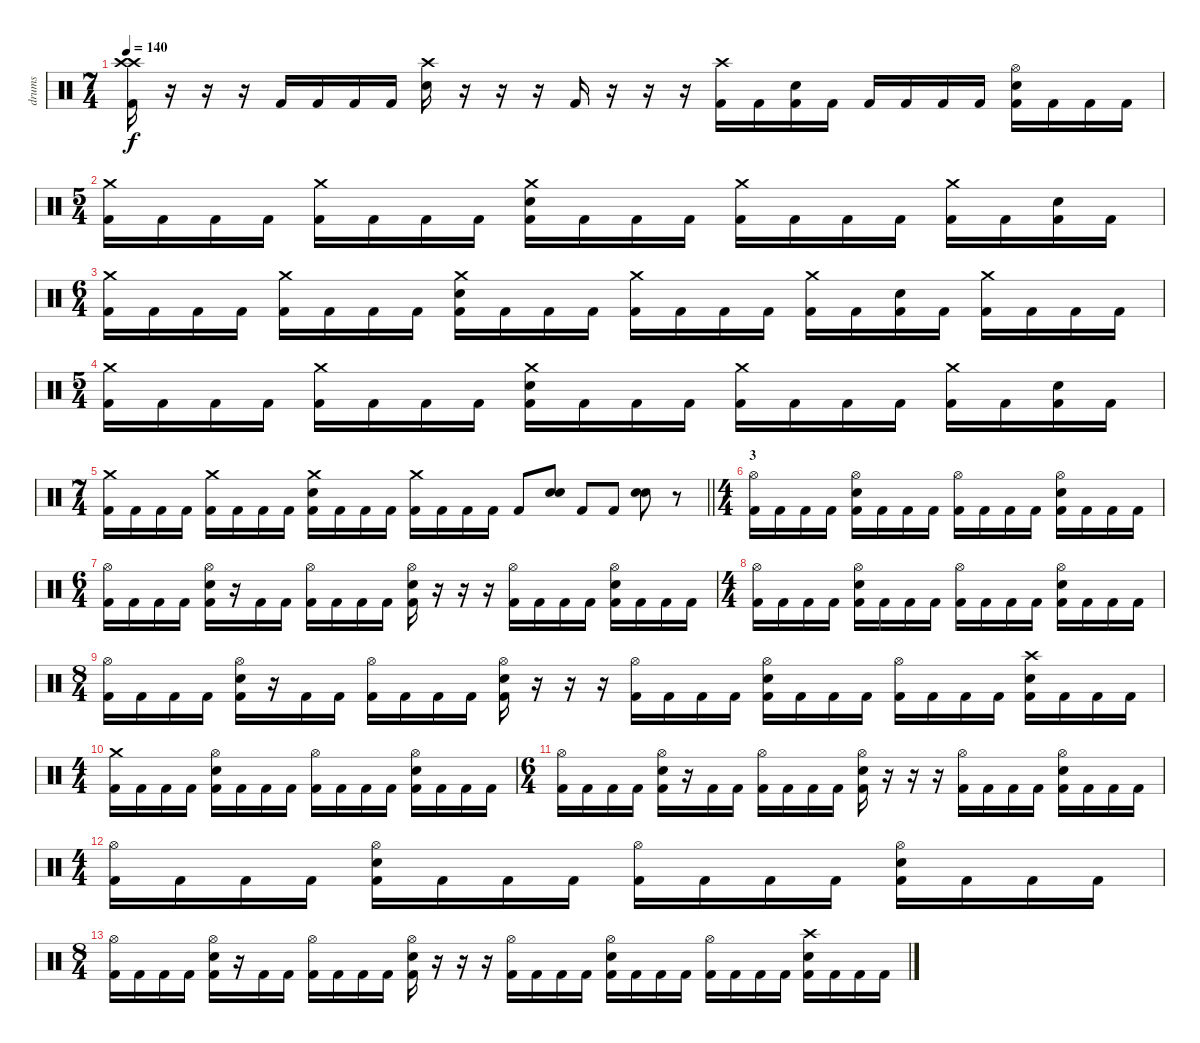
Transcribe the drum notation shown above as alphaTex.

\track ("drums" "drums") {instrument percussion}
\staff {score}
\articulation defaults
\ts (7 4)
\tempo 140
\clef neutral
\ks c
("Crash high (hit)" "Crash high (hit)" "Kick (hit) 2").16{dy f} r.16 r.16 r.16 "Kick (hit) 2".16 "Kick (hit) 2".16 "Kick (hit) 2".16 "Kick (hit) 2".16 ("Crash high (hit)" "Electric Snare (hit)").16 r.16 r.16 r.16 "Kick (hit) 2".16 r.16 r.16 r.16 ("Crash high (hit)" "Kick (hit) 2").16 "Kick (hit) 2".16 ("Electric Snare (hit)" "Kick (hit) 2").16 "Kick (hit) 2".16 "Kick (hit) 2".16 "Kick (hit) 2".16 "Kick (hit) 2".16 "Kick (hit) 2".16 ("Hi-Hat (open)" "Electric Snare (hit)" "Kick (hit) 2").16 "Kick (hit) 2".16 "Kick (hit) 2".16 "Kick (hit) 2".16 |
\ts (5 4)
("Crash medium (hit)" "Kick (hit) 2").16 "Kick (hit) 2".16 "Kick (hit) 2".16 "Kick (hit) 2".16 ("Crash medium (hit)" "Kick (hit) 2").16 "Kick (hit) 2".16 "Kick (hit) 2".16 "Kick (hit) 2".16 ("Crash medium (hit)" "Electric Snare (hit)" "Kick (hit) 2").16 "Kick (hit) 2".16 "Kick (hit) 2".16 "Kick (hit) 2".16 ("Crash medium (hit)" "Kick (hit) 2").16 "Kick (hit) 2".16 "Kick (hit) 2".16 "Kick (hit) 2".16 ("Crash medium (hit)" "Kick (hit) 2").16 "Kick (hit) 2".16 ("Electric Snare (hit)" "Kick (hit) 2").16 "Kick (hit) 2".16 |
\ts (6 4)
("Crash medium (hit)" "Kick (hit) 2").16 "Kick (hit) 2".16 "Kick (hit) 2".16 "Kick (hit) 2".16 ("Crash medium (hit)" "Kick (hit) 2").16 "Kick (hit) 2".16 "Kick (hit) 2".16 "Kick (hit) 2".16 ("Crash medium (hit)" "Electric Snare (hit)" "Kick (hit) 2").16 "Kick (hit) 2".16 "Kick (hit) 2".16 "Kick (hit) 2".16 ("Crash medium (hit)" "Kick (hit) 2").16 "Kick (hit) 2".16 "Kick (hit) 2".16 "Kick (hit) 2".16 ("Crash medium (hit)" "Kick (hit) 2").16 "Kick (hit) 2".16 ("Electric Snare (hit)" "Kick (hit) 2").16 "Kick (hit) 2".16 ("Crash medium (hit)" "Kick (hit) 2").16 "Kick (hit) 2".16 "Kick (hit) 2".16 "Kick (hit) 2".16 |
\ts (5 4)
("Crash medium (hit)" "Kick (hit) 2").16 "Kick (hit) 2".16 "Kick (hit) 2".16 "Kick (hit) 2".16 ("Crash medium (hit)" "Kick (hit) 2").16 "Kick (hit) 2".16 "Kick (hit) 2".16 "Kick (hit) 2".16 ("Crash medium (hit)" "Electric Snare (hit)" "Kick (hit) 2").16 "Kick (hit) 2".16 "Kick (hit) 2".16 "Kick (hit) 2".16 ("Crash medium (hit)" "Kick (hit) 2").16 "Kick (hit) 2".16 "Kick (hit) 2".16 "Kick (hit) 2".16 ("Crash medium (hit)" "Kick (hit) 2").16 "Kick (hit) 2".16 ("Electric Snare (hit)" "Kick (hit) 2").16 "Kick (hit) 2".16 |
\ts (7 4)
\barLineRight lightlight
("Crash medium (hit)" "Kick (hit) 2").16 "Kick (hit) 2".16 "Kick (hit) 2".16 "Kick (hit) 2".16 ("Crash medium (hit)" "Kick (hit) 2").16 "Kick (hit) 2".16 "Kick (hit) 2".16 "Kick (hit) 2".16 ("Crash medium (hit)" "Electric Snare (hit)" "Kick (hit) 2").16 "Kick (hit) 2".16 "Kick (hit) 2".16 "Kick (hit) 2".16 ("Crash medium (hit)" "Kick (hit) 2").16 "Kick (hit) 2".16 "Kick (hit) 2".16 "Kick (hit) 2".16 "Kick (hit) 2".8 ("Electric Snare (hit)" "Electric Snare (hit)").8 "Kick (hit) 2".8 "Kick (hit) 2".8 ("Electric Snare (hit)" "Electric Snare (hit)").8 r.8 |
\ts (4 4)
\section ("" "3")
("Hi-Hat (open)" "Kick (hit) 2").16 "Kick (hit) 2".16 "Kick (hit) 2".16 "Kick (hit) 2".16 ("Hi-Hat (open)" "Electric Snare (hit)" "Kick (hit) 2").16 "Kick (hit) 2".16 "Kick (hit) 2".16 "Kick (hit) 2".16 ("Hi-Hat (open)" "Kick (hit) 2").16 "Kick (hit) 2".16 "Kick (hit) 2".16 "Kick (hit) 2".16 ("Hi-Hat (open)" "Electric Snare (hit)" "Kick (hit) 2").16 "Kick (hit) 2".16 "Kick (hit) 2".16 "Kick (hit) 2".16 |
\ts (6 4)
("Hi-Hat (open)" "Kick (hit) 2").16 "Kick (hit) 2".16 "Kick (hit) 2".16 "Kick (hit) 2".16 ("Hi-Hat (open)" "Electric Snare (hit)" "Kick (hit) 2").16 r.16 "Kick (hit) 2".16 "Kick (hit) 2".16 ("Hi-Hat (open)" "Kick (hit) 2").16 "Kick (hit) 2".16 "Kick (hit) 2".16 "Kick (hit) 2".16 ("Hi-Hat (open)" "Electric Snare (hit)" "Kick (hit) 2").16 r.16 r.16 r.16 ("Hi-Hat (open)" "Kick (hit) 2").16 "Kick (hit) 2".16 "Kick (hit) 2".16 "Kick (hit) 2".16 ("Hi-Hat (open)" "Electric Snare (hit)" "Kick (hit) 2").16 "Kick (hit) 2".16 "Kick (hit) 2".16 "Kick (hit) 2".16 |
\ts (4 4)
("Hi-Hat (open)" "Kick (hit) 2").16 "Kick (hit) 2".16 "Kick (hit) 2".16 "Kick (hit) 2".16 ("Hi-Hat (open)" "Electric Snare (hit)" "Kick (hit) 2").16 "Kick (hit) 2".16 "Kick (hit) 2".16 "Kick (hit) 2".16 ("Hi-Hat (open)" "Kick (hit) 2").16 "Kick (hit) 2".16 "Kick (hit) 2".16 "Kick (hit) 2".16 ("Hi-Hat (open)" "Electric Snare (hit)" "Kick (hit) 2").16 "Kick (hit) 2".16 "Kick (hit) 2".16 "Kick (hit) 2".16 |
\ts (8 4)
("Hi-Hat (open)" "Kick (hit) 2").16 "Kick (hit) 2".16 "Kick (hit) 2".16 "Kick (hit) 2".16 ("Hi-Hat (open)" "Electric Snare (hit)" "Kick (hit) 2").16 r.16 "Kick (hit) 2".16 "Kick (hit) 2".16 ("Hi-Hat (open)" "Kick (hit) 2").16 "Kick (hit) 2".16 "Kick (hit) 2".16 "Kick (hit) 2".16 ("Hi-Hat (open)" "Electric Snare (hit)" "Kick (hit) 2").16 r.16 r.16 r.16 ("Hi-Hat (open)" "Kick (hit) 2").16 "Kick (hit) 2".16 "Kick (hit) 2".16 "Kick (hit) 2".16 ("Hi-Hat (open)" "Electric Snare (hit)" "Kick (hit) 2").16 "Kick (hit) 2".16 "Kick (hit) 2".16 "Kick (hit) 2".16 ("Hi-Hat (open)" "Kick (hit) 2").16 "Kick (hit) 2".16 "Kick (hit) 2".16 "Kick (hit) 2".16 ("Crash high (hit)" "Electric Snare (hit)" "Kick (hit) 2").16 "Kick (hit) 2".16 "Kick (hit) 2".16 "Kick (hit) 2".16 |
\ts (4 4)
("Crash medium (hit)" "Kick (hit) 2").16 "Kick (hit) 2".16 "Kick (hit) 2".16 "Kick (hit) 2".16 ("Hi-Hat (open)" "Electric Snare (hit)" "Kick (hit) 2").16 "Kick (hit) 2".16 "Kick (hit) 2".16 "Kick (hit) 2".16 ("Hi-Hat (open)" "Kick (hit) 2").16 "Kick (hit) 2".16 "Kick (hit) 2".16 "Kick (hit) 2".16 ("Hi-Hat (open)" "Electric Snare (hit)" "Kick (hit) 2").16 "Kick (hit) 2".16 "Kick (hit) 2".16 "Kick (hit) 2".16 |
\ts (6 4)
("Hi-Hat (open)" "Kick (hit) 2").16 "Kick (hit) 2".16 "Kick (hit) 2".16 "Kick (hit) 2".16 ("Hi-Hat (open)" "Electric Snare (hit)" "Kick (hit) 2").16 r.16 "Kick (hit) 2".16 "Kick (hit) 2".16 ("Hi-Hat (open)" "Kick (hit) 2").16 "Kick (hit) 2".16 "Kick (hit) 2".16 "Kick (hit) 2".16 ("Hi-Hat (open)" "Electric Snare (hit)" "Kick (hit) 2").16 r.16 r.16 r.16 ("Hi-Hat (open)" "Kick (hit) 2").16 "Kick (hit) 2".16 "Kick (hit) 2".16 "Kick (hit) 2".16 ("Hi-Hat (open)" "Electric Snare (hit)" "Kick (hit) 2").16 "Kick (hit) 2".16 "Kick (hit) 2".16 "Kick (hit) 2".16 |
\ts (4 4)
("Hi-Hat (open)" "Kick (hit) 2").16 "Kick (hit) 2".16 "Kick (hit) 2".16 "Kick (hit) 2".16 ("Hi-Hat (open)" "Electric Snare (hit)" "Kick (hit) 2").16 "Kick (hit) 2".16 "Kick (hit) 2".16 "Kick (hit) 2".16 ("Hi-Hat (open)" "Kick (hit) 2").16 "Kick (hit) 2".16 "Kick (hit) 2".16 "Kick (hit) 2".16 ("Hi-Hat (open)" "Electric Snare (hit)" "Kick (hit) 2").16 "Kick (hit) 2".16 "Kick (hit) 2".16 "Kick (hit) 2".16 |
\ts (8 4)
("Hi-Hat (open)" "Kick (hit) 2").16 "Kick (hit) 2".16 "Kick (hit) 2".16 "Kick (hit) 2".16 ("Hi-Hat (open)" "Electric Snare (hit)" "Kick (hit) 2").16 r.16 "Kick (hit) 2".16 "Kick (hit) 2".16 ("Hi-Hat (open)" "Kick (hit) 2").16 "Kick (hit) 2".16 "Kick (hit) 2".16 "Kick (hit) 2".16 ("Hi-Hat (open)" "Electric Snare (hit)" "Kick (hit) 2").16 r.16 r.16 r.16 ("Hi-Hat (open)" "Kick (hit) 2").16 "Kick (hit) 2".16 "Kick (hit) 2".16 "Kick (hit) 2".16 ("Hi-Hat (open)" "Electric Snare (hit)" "Kick (hit) 2").16 "Kick (hit) 2".16 "Kick (hit) 2".16 "Kick (hit) 2".16 ("Hi-Hat (open)" "Kick (hit) 2").16 "Kick (hit) 2".16 "Kick (hit) 2".16 "Kick (hit) 2".16 ("Crash high (hit)" "Electric Snare (hit)" "Kick (hit) 2").16 "Kick (hit) 2".16 "Kick (hit) 2".16 "Kick (hit) 2".16
